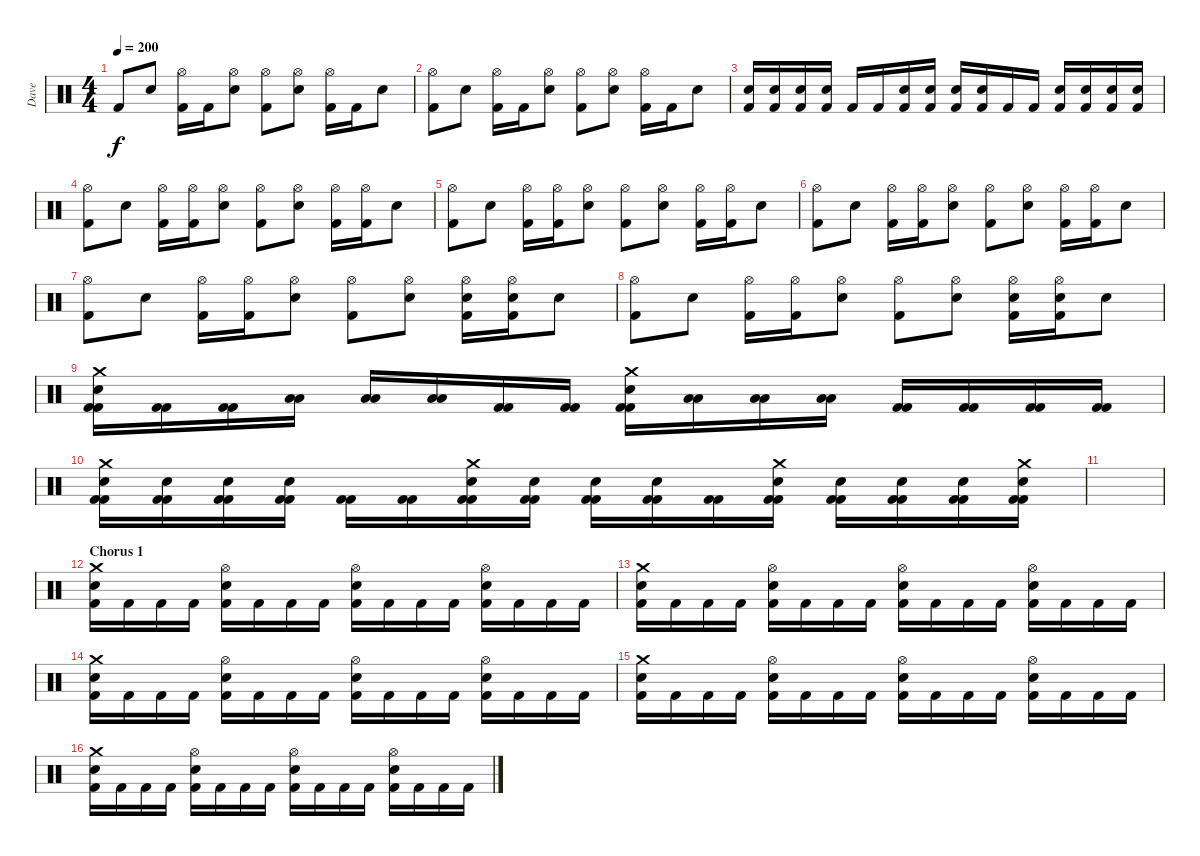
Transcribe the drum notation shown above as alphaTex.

\track ("Dave" "Dave") {instrument percussion}
\staff {score}
\articulation defaults
\ts (4 4)
\tempo 200
\clef neutral
\ks c "Kick (hit) 2".8{dy f} "Snare (hit) 2".8
("Hi-Hat (open)" "Kick (hit) 2").16 "Kick (hit) 2".16 ("Hi-Hat (open)" "Snare (hit) 2").8 ("Hi-Hat (open)" "Kick (hit) 2").8 ("Hi-Hat (open)" "Snare (hit) 2").8 ("Hi-Hat (open)" "Kick (hit) 2").16 "Kick (hit) 2".16 "Snare (hit) 2".8 |
("Hi-Hat (open)" "Kick (hit) 2").8 "Snare (hit) 2".8 ("Hi-Hat (open)" "Kick (hit) 2").16 "Kick (hit) 2".16 ("Hi-Hat (open)" "Snare (hit) 2").8 ("Hi-Hat (open)" "Kick (hit) 2").8 ("Hi-Hat (open)" "Snare (hit) 2").8 ("Hi-Hat (open)" "Kick (hit) 2").16 "Kick (hit) 2".16 "Snare (hit) 2".8 |
("Snare (hit) 2" "Kick (hit) 2").16 ("Snare (hit) 2" "Kick (hit) 2").16 ("Snare (hit) 2" "Kick (hit) 2").16 ("Snare (hit) 2" "Kick (hit) 2").16 "Kick (hit) 2".16 "Kick (hit) 2".16 ("Snare (hit) 2" "Kick (hit) 2").16 ("Snare (hit) 2" "Kick (hit) 2").16 ("Snare (hit) 2" "Kick (hit) 2").16 ("Snare (hit) 2" "Kick (hit) 2").16 "Kick (hit) 2".16 "Kick (hit) 2".16 ("Snare (hit) 2" "Kick (hit) 2").16 ("Snare (hit) 2" "Kick (hit) 2").16 ("Snare (hit) 2" "Kick (hit) 2").16 ("Snare (hit) 2" "Kick (hit) 2").16 |
("Hi-Hat (open)" "Kick (hit) 2").8 "Snare (hit) 2".8 ("Hi-Hat (open)" "Kick (hit) 2").16 ("Hi-Hat (open)" "Kick (hit) 2").16 ("Hi-Hat (open)" "Snare (hit) 2").8 ("Hi-Hat (open)" "Kick (hit) 2").8 ("Hi-Hat (open)" "Snare (hit) 2").8 ("Hi-Hat (open)" "Kick (hit) 2").16 ("Hi-Hat (open)" "Kick (hit) 2").16 "Snare (hit) 2".8 |
("Hi-Hat (open)" "Kick (hit) 2").8 "Snare (hit) 2".8 ("Hi-Hat (open)" "Kick (hit) 2").16 ("Hi-Hat (open)" "Kick (hit) 2").16 ("Hi-Hat (open)" "Snare (hit) 2").8 ("Hi-Hat (open)" "Kick (hit) 2").8 ("Hi-Hat (open)" "Snare (hit) 2").8 ("Hi-Hat (open)" "Kick (hit) 2").16 ("Hi-Hat (open)" "Kick (hit) 2").16 "Snare (hit) 2".8 |
("Hi-Hat (open)" "Kick (hit) 2").8 "Snare (hit) 2".8 ("Hi-Hat (open)" "Kick (hit) 2").16 ("Hi-Hat (open)" "Kick (hit) 2").16 ("Hi-Hat (open)" "Snare (hit) 2").8 ("Hi-Hat (open)" "Kick (hit) 2").8 ("Hi-Hat (open)" "Snare (hit) 2").8 ("Hi-Hat (open)" "Kick (hit) 2").16 ("Hi-Hat (open)" "Kick (hit) 2").16 "Snare (hit) 2".8 |
("Hi-Hat (open)" "Kick (hit) 2").8 "Snare (hit) 2".8 ("Hi-Hat (open)" "Kick (hit) 2").16 ("Hi-Hat (open)" "Kick (hit) 2").16 ("Hi-Hat (open)" "Snare (hit) 2").8 ("Hi-Hat (open)" "Kick (hit) 2").8 ("Hi-Hat (open)" "Snare (hit) 2").8 ("Hi-Hat (open)" "Snare (hit) 2" "Kick (hit) 2").16 ("Hi-Hat (open)" "Snare (hit) 2" "Kick (hit) 2").16 "Snare (hit) 2".8 |
("Hi-Hat (open)" "Kick (hit) 2").8 "Snare (hit) 2".8 ("Hi-Hat (open)" "Kick (hit) 2").16 ("Hi-Hat (open)" "Kick (hit) 2").16 ("Hi-Hat (open)" "Snare (hit) 2").8 ("Hi-Hat (open)" "Kick (hit) 2").8 ("Hi-Hat (open)" "Snare (hit) 2").8 ("Hi-Hat (open)" "Snare (hit) 2" "Kick (hit) 2").16 ("Hi-Hat (open)" "Snare (hit) 2" "Kick (hit) 2").16 "Snare (hit) 2".8 |
("Crash medium (hit)" "Snare (hit) 2" "Kick (hit) 2" "Kick (hit) 2").16 ("Kick (hit) 2" "Kick (hit) 2").16 ("Kick (hit) 2" "Kick (hit) 2").16 ("Low Floor Tom (hit)" "Low Floor Tom (hit)").16 ("Low Floor Tom (hit)" "Low Floor Tom (hit)").16 ("Low Floor Tom (hit)" "Low Floor Tom (hit)").16 ("Kick (hit) 2" "Kick (hit) 2").16 ("Kick (hit) 2" "Kick (hit) 2").16 ("Crash medium (hit)" "Snare (hit) 2" "Kick (hit) 2" "Kick (hit) 2").16 ("Low Floor Tom (hit)" "Low Floor Tom (hit)").16 ("Low Floor Tom (hit)" "Low Floor Tom (hit)").16 ("Low Floor Tom (hit)" "Low Floor Tom (hit)").16 ("Kick (hit) 2" "Kick (hit) 2").16 ("Kick (hit) 2" "Kick (hit) 2").16 ("Kick (hit) 2" "Kick (hit) 2").16 ("Kick (hit) 2" "Kick (hit) 2").16 |
("Crash medium (hit)" "Snare (hit) 2" "Kick (hit) 2" "Kick (hit) 2").16 ("Snare (hit) 2" "Kick (hit) 2" "Kick (hit) 2").16 ("Snare (hit) 2" "Kick (hit) 2" "Kick (hit) 2").16 ("Snare (hit) 2" "Kick (hit) 2" "Kick (hit) 2").16 ("Kick (hit) 2" "Kick (hit) 2").16 ("Kick (hit) 2" "Kick (hit) 2").16 ("Crash medium (hit)" "Snare (hit) 2" "Kick (hit) 2" "Kick (hit) 2").16 ("Snare (hit) 2" "Kick (hit) 2" "Kick (hit) 2").16 ("Snare (hit) 2" "Kick (hit) 2" "Kick (hit) 2").16 ("Snare (hit) 2" "Kick (hit) 2" "Kick (hit) 2").16 ("Kick (hit) 2" "Kick (hit) 2").16 ("Crash medium (hit)" "Snare (hit) 2" "Kick (hit) 2" "Kick (hit) 2").16 ("Snare (hit) 2" "Kick (hit) 2" "Kick (hit) 2").16 ("Snare (hit) 2" "Kick (hit) 2" "Kick (hit) 2").16 ("Snare (hit) 2" "Kick (hit) 2" "Kick (hit) 2").16 ("Crash medium (hit)" "Snare (hit) 2" "Kick (hit) 2" "Kick (hit) 2").16 |
|
\section ("" "Chorus 1")
("Crash medium (hit)" "Snare (hit) 2" "Kick (hit) 2").16 "Kick (hit) 2".16 "Kick (hit) 2".16 "Kick (hit) 2".16 ("Hi-Hat (open)" "Snare (hit) 2" "Kick (hit) 2").16 "Kick (hit) 2".16 "Kick (hit) 2".16 "Kick (hit) 2".16 ("Hi-Hat (open)" "Snare (hit) 2" "Kick (hit) 2").16 "Kick (hit) 2".16 "Kick (hit) 2".16 "Kick (hit) 2".16 ("Hi-Hat (open)" "Snare (hit) 2" "Kick (hit) 2").16 "Kick (hit) 2".16 "Kick (hit) 2".16 "Kick (hit) 2".16 |
("Crash medium (hit)" "Snare (hit) 2" "Kick (hit) 2").16 "Kick (hit) 2".16 "Kick (hit) 2".16 "Kick (hit) 2".16 ("Hi-Hat (open)" "Snare (hit) 2" "Kick (hit) 2").16 "Kick (hit) 2".16 "Kick (hit) 2".16 "Kick (hit) 2".16 ("Hi-Hat (open)" "Snare (hit) 2" "Kick (hit) 2").16 "Kick (hit) 2".16 "Kick (hit) 2".16 "Kick (hit) 2".16 ("Hi-Hat (open)" "Snare (hit) 2" "Kick (hit) 2").16 "Kick (hit) 2".16 "Kick (hit) 2".16 "Kick (hit) 2".16 |
("Crash medium (hit)" "Snare (hit) 2" "Kick (hit) 2").16 "Kick (hit) 2".16 "Kick (hit) 2".16 "Kick (hit) 2".16 ("Hi-Hat (open)" "Snare (hit) 2" "Kick (hit) 2").16 "Kick (hit) 2".16 "Kick (hit) 2".16 "Kick (hit) 2".16 ("Hi-Hat (open)" "Snare (hit) 2" "Kick (hit) 2").16 "Kick (hit) 2".16 "Kick (hit) 2".16 "Kick (hit) 2".16 ("Hi-Hat (open)" "Snare (hit) 2" "Kick (hit) 2").16 "Kick (hit) 2".16 "Kick (hit) 2".16 "Kick (hit) 2".16 |
("Crash medium (hit)" "Snare (hit) 2" "Kick (hit) 2").16 "Kick (hit) 2".16 "Kick (hit) 2".16 "Kick (hit) 2".16 ("Hi-Hat (open)" "Snare (hit) 2" "Kick (hit) 2").16 "Kick (hit) 2".16 "Kick (hit) 2".16 "Kick (hit) 2".16 ("Hi-Hat (open)" "Snare (hit) 2" "Kick (hit) 2").16 "Kick (hit) 2".16 "Kick (hit) 2".16 "Kick (hit) 2".16 ("Hi-Hat (open)" "Snare (hit) 2" "Kick (hit) 2").16 "Kick (hit) 2".16 "Kick (hit) 2".16 "Kick (hit) 2".16 |
("Crash medium (hit)" "Snare (hit) 2" "Kick (hit) 2").16 "Kick (hit) 2".16 "Kick (hit) 2".16 "Kick (hit) 2".16 ("Hi-Hat (open)" "Snare (hit) 2" "Kick (hit) 2").16 "Kick (hit) 2".16 "Kick (hit) 2".16 "Kick (hit) 2".16 ("Hi-Hat (open)" "Snare (hit) 2" "Kick (hit) 2").16 "Kick (hit) 2".16 "Kick (hit) 2".16 "Kick (hit) 2".16 ("Hi-Hat (open)" "Snare (hit) 2" "Kick (hit) 2").16 "Kick (hit) 2".16 "Kick (hit) 2".16 "Kick (hit) 2".16
